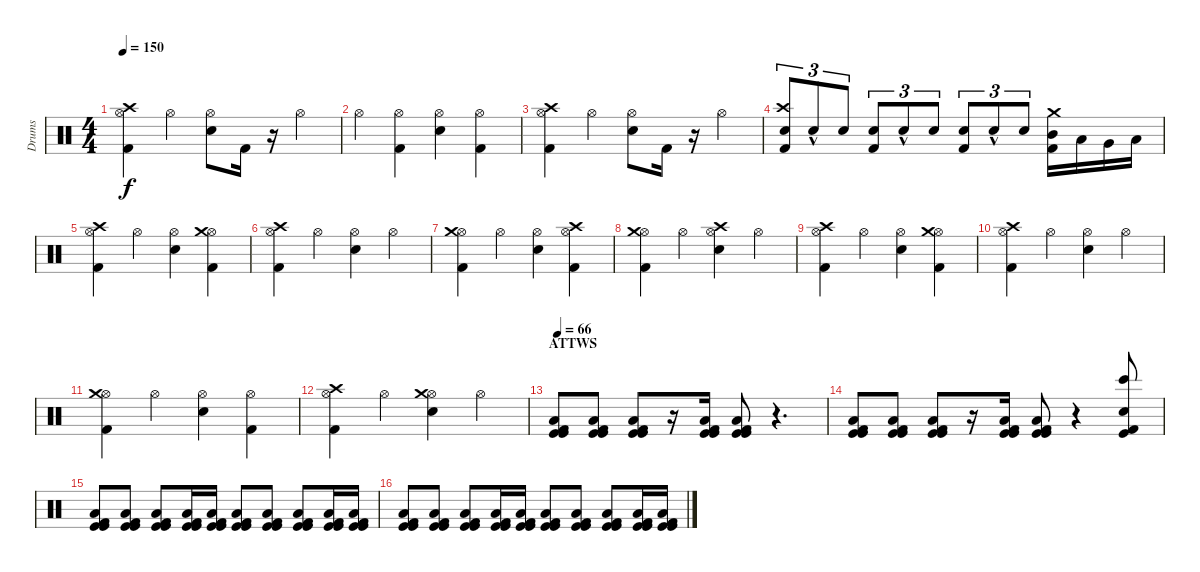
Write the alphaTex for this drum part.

\track ("Drums" "Drums") {instrument percussion}
\staff {score}
\articulation defaults
\ts (4 4)
\tempo 150
\clef neutral
\ks c
("Kick (hit) 2" "Hi-Hat (open)" "Crash high (hit)").4{dy f} "Hi-Hat (open)".4 ("Electric Snare (hit)" "Hi-Hat (open)").8 "Kick (hit) 2".16 r.16 "Hi-Hat (open)".4 |
"Hi-Hat (open)".4 ("Kick (hit) 2" "Hi-Hat (open)").4 ("Electric Snare (hit)" "Hi-Hat (open)").4 ("Kick (hit) 2" "Hi-Hat (open)").4 |
("Kick (hit) 2" "Hi-Hat (open)" "Crash high (hit)").4 "Hi-Hat (open)".4 ("Electric Snare (hit)" "Hi-Hat (open)").8 "Kick (hit) 2".16 r.16 "Hi-Hat (open)".4 |
("Kick (hit) 2" "Electric Snare (hit)" "Crash high (hit)").8{tu (3 2)} "Electric Snare (hit)"{hac}.8{tu (3 2)} "Electric Snare (hit)".8{tu (3 2)} ("Kick (hit) 2" "Electric Snare (hit)").8{tu (3 2)} "Electric Snare (hit)"{hac}.8{tu (3 2)} "Electric Snare (hit)".8{tu (3 2)} ("Kick (hit) 2" "Electric Snare (hit)").8{tu (3 2)} "Electric Snare (hit)"{hac}.8{tu (3 2)} "Electric Snare (hit)".8{tu (3 2)} ("Kick (hit) 2" "Mid Tom (hit)" "Crash medium (hit)").16 "Low Tom (hit)".16 "Very Low Tom (hit)".16 "Low Floor Tom (hit)".16 |
("Kick (hit) 2" "Hi-Hat (open)" "Crash high (hit)").4 "Hi-Hat (open)".4 ("Electric Snare (hit)" "Hi-Hat (open)").4 ("Kick (hit) 2" "Hi-Hat (open)" "Crash medium (hit)").4 |
("Kick (hit) 2" "Hi-Hat (open)" "Crash high (hit)").4 "Hi-Hat (open)".4 ("Electric Snare (hit)" "Hi-Hat (open)").4 "Hi-Hat (open)".4 |
("Kick (hit) 2" "Hi-Hat (open)" "Crash medium (hit)").4 "Hi-Hat (open)".4 ("Electric Snare (hit)" "Hi-Hat (open)").4 ("Kick (hit) 2" "Hi-Hat (open)" "Crash high (hit)").4 |
("Kick (hit) 2" "Hi-Hat (open)" "Crash medium (hit)").4 "Hi-Hat (open)".4 ("Electric Snare (hit)" "Hi-Hat (open)" "Crash high (hit)").4 "Hi-Hat (open)".4 |
("Kick (hit) 2" "Hi-Hat (open)" "Crash high (hit)").4 "Hi-Hat (open)".4 ("Electric Snare (hit)" "Hi-Hat (open)").4 ("Kick (hit) 2" "Hi-Hat (open)" "Crash medium (hit)").4 |
("Kick (hit) 2" "Hi-Hat (open)" "Crash high (hit)").4 "Hi-Hat (open)".4 ("Electric Snare (hit)" "Hi-Hat (open)").4 "Hi-Hat (open)".4 |
("Kick (hit) 2" "Hi-Hat (open)" "Crash medium (hit)").4 "Hi-Hat (open)".4 ("Electric Snare (hit)" "Hi-Hat (open)").4 ("Kick (hit) 2" "Hi-Hat (open)").4 |
("Kick (hit) 2" "Hi-Hat (open)" "Crash high (hit)").4 "Hi-Hat (open)".4 ("Electric Snare (hit)" "Hi-Hat (open)" "Crash medium (hit)").4 "Hi-Hat (open)".4 |
\section ("" "ATTWS")
\tempo 66
("Kick (hit)" "Kick (hit)" "Kick (hit) 2" "Low Floor Tom (hit)").8 ("Kick (hit)" "Kick (hit)" "Kick (hit) 2" "Low Floor Tom (hit)").8 ("Kick (hit)" "Kick (hit)" "Kick (hit) 2" "Low Floor Tom (hit)").8 r.16 ("Kick (hit)" "Kick (hit)" "Kick (hit) 2" "Low Floor Tom (hit)").16 ("Kick (hit)" "Kick (hit)" "Kick (hit) 2" "Low Floor Tom (hit)").8 r.4{d} |
("Kick (hit)" "Kick (hit)" "Kick (hit) 2" "Low Floor Tom (hit)").8 ("Kick (hit)" "Kick (hit)" "Kick (hit) 2" "Low Floor Tom (hit)").8 ("Kick (hit)" "Kick (hit)" "Kick (hit) 2" "Low Floor Tom (hit)").8 r.16 ("Kick (hit)" "Kick (hit)" "Kick (hit) 2" "Low Floor Tom (hit)").16 ("Kick (hit)" "Kick (hit)" "Kick (hit) 2" "Low Floor Tom (hit)").8 r.4 ("Bongo High (hit)" "Kick (hit)" "Kick (hit) 2" "Snare (hit) 2").8 |
("Kick (hit)" "Kick (hit)" "Kick (hit) 2" "Low Floor Tom (hit)").8 ("Kick (hit)" "Kick (hit)" "Kick (hit) 2" "Low Floor Tom (hit)").8 ("Kick (hit)" "Kick (hit)" "Kick (hit) 2" "Low Floor Tom (hit)").8 ("Kick (hit)" "Kick (hit)" "Kick (hit) 2" "Low Floor Tom (hit)").16 ("Kick (hit)" "Kick (hit)" "Kick (hit) 2" "Low Floor Tom (hit)").16 ("Kick (hit)" "Kick (hit)" "Kick (hit) 2" "Low Floor Tom (hit)").8 ("Kick (hit)" "Kick (hit)" "Kick (hit) 2" "Low Floor Tom (hit)").8 ("Kick (hit)" "Kick (hit)" "Kick (hit) 2" "Low Floor Tom (hit)").8 ("Kick (hit)" "Kick (hit)" "Kick (hit) 2" "Low Floor Tom (hit)").16 ("Kick (hit)" "Kick (hit)" "Kick (hit) 2" "Low Floor Tom (hit)").16 |
("Kick (hit)" "Kick (hit)" "Kick (hit) 2" "Low Floor Tom (hit)").8 ("Kick (hit)" "Kick (hit)" "Kick (hit) 2" "Low Floor Tom (hit)").8 ("Kick (hit)" "Kick (hit)" "Kick (hit) 2" "Low Floor Tom (hit)").8 ("Kick (hit)" "Kick (hit)" "Kick (hit) 2" "Low Floor Tom (hit)").16 ("Kick (hit)" "Kick (hit)" "Kick (hit) 2" "Low Floor Tom (hit)").16 ("Kick (hit)" "Kick (hit)" "Kick (hit) 2" "Low Floor Tom (hit)").8 ("Kick (hit)" "Kick (hit)" "Kick (hit) 2" "Low Floor Tom (hit)").8 ("Kick (hit)" "Kick (hit)" "Kick (hit) 2" "Low Floor Tom (hit)").8 ("Kick (hit)" "Kick (hit)" "Kick (hit) 2" "Low Floor Tom (hit)").16 ("Kick (hit)" "Kick (hit)" "Kick (hit) 2" "Low Floor Tom (hit)").16
